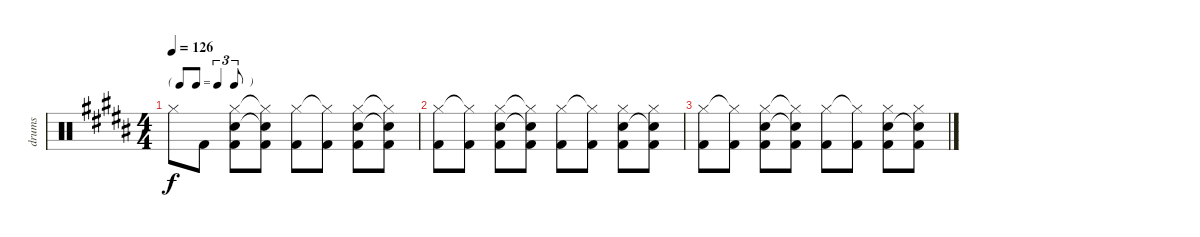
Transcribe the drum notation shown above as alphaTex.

\track ("drums" "drums") {instrument percussion}
\staff {score}
\articulation defaults
\ts (4 4)
\tf triplet8th
\tempo 126
\clef neutral
\ks b "Hi-Hat (closed)".8{dy f} "Kick (hit) 2".8
("Hi-Hat (closed)" "Electric Snare (hit)" "Kick (hit) 2").8 ("Hi-Hat (closed)"{t} "Snare (hit)"{t} "Kick (hit) 2").8 ("Hi-Hat (closed)" "Kick (hit) 2").8 ("Hi-Hat (closed)"{t} "Kick (hit) 2").8 ("Hi-Hat (closed)" "Electric Snare (hit)" "Kick (hit) 2").8 ("Hi-Hat (closed)"{t} "Snare (hit)"{t} "Kick (hit) 2").8 |
("Hi-Hat (closed)" "Kick (hit) 2").8 ("Hi-Hat (closed)"{t} "Kick (hit) 2").8 ("Hi-Hat (closed)" "Electric Snare (hit)" "Kick (hit) 2").8 ("Hi-Hat (closed)"{t} "Snare (hit)"{t} "Kick (hit) 2").8 ("Hi-Hat (closed)" "Kick (hit) 2").8 ("Hi-Hat (closed)"{t} "Kick (hit) 2").8 ("Hi-Hat (closed)" "Electric Snare (hit)" "Kick (hit) 2").8 ("Hi-Hat (closed)" "Snare (hit)"{t} "Kick (hit) 2").8 |
("Hi-Hat (closed)" "Kick (hit) 2").8 ("Hi-Hat (closed)"{t} "Kick (hit) 2").8 ("Hi-Hat (closed)" "Electric Snare (hit)" "Kick (hit) 2").8 ("Hi-Hat (closed)"{t} "Snare (hit)"{t} "Kick (hit) 2").8 ("Hi-Hat (closed)" "Kick (hit) 2").8 ("Hi-Hat (closed)"{t} "Kick (hit) 2").8 ("Hi-Hat (closed)" "Electric Snare (hit)" "Kick (hit) 2").8 ("Hi-Hat (closed)" "Snare (hit)"{t} "Kick (hit) 2").8
